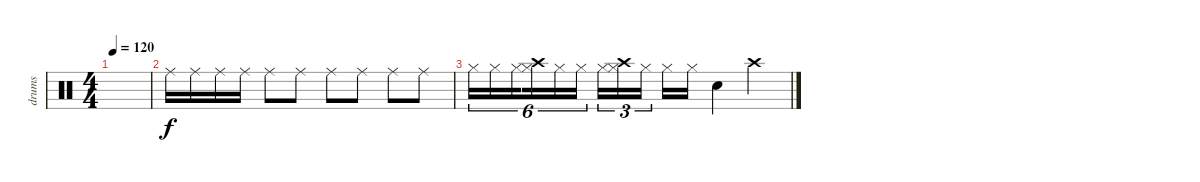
\track ("drums" "drums") {instrument percussion}
\staff {score}
\articulation defaults
\ts (4 4)
\tempo 120
\clef neutral
\ks c
|
"Ride (middle)".16 "Ride (middle)".16 "Ride (middle)".16 "Ride (middle)".16 "Ride (middle)".8 "Ride (middle)".8 "Ride (middle)".8 "Ride (middle)".8 "Ride (middle)".8 "Ride (middle)".8 |
"Hi-Hat (closed)".16{tu (6 4)} "Hi-Hat (closed)".16{tu (6 4)} "Hi-Hat (closed)".16{tu (6 4) beam splitsecondary} ("Hi-Hat (closed)" "Crash high (hit)").16{tu (6 4)} "Hi-Hat (closed)".16{tu (6 4)} "Hi-Hat (closed)".16{tu (6 4)} "Hi-Hat (closed)".16{tu (3 2)} ("Hi-Hat (closed)" "Crash high (hit)").16{tu (3 2)} "Hi-Hat (closed)".16{tu (3 2) beam splitsecondary} "Hi-Hat (closed)".16 "Hi-Hat (closed)".16 "Snare (hit) 2".4 "Crash high (hit)".4
